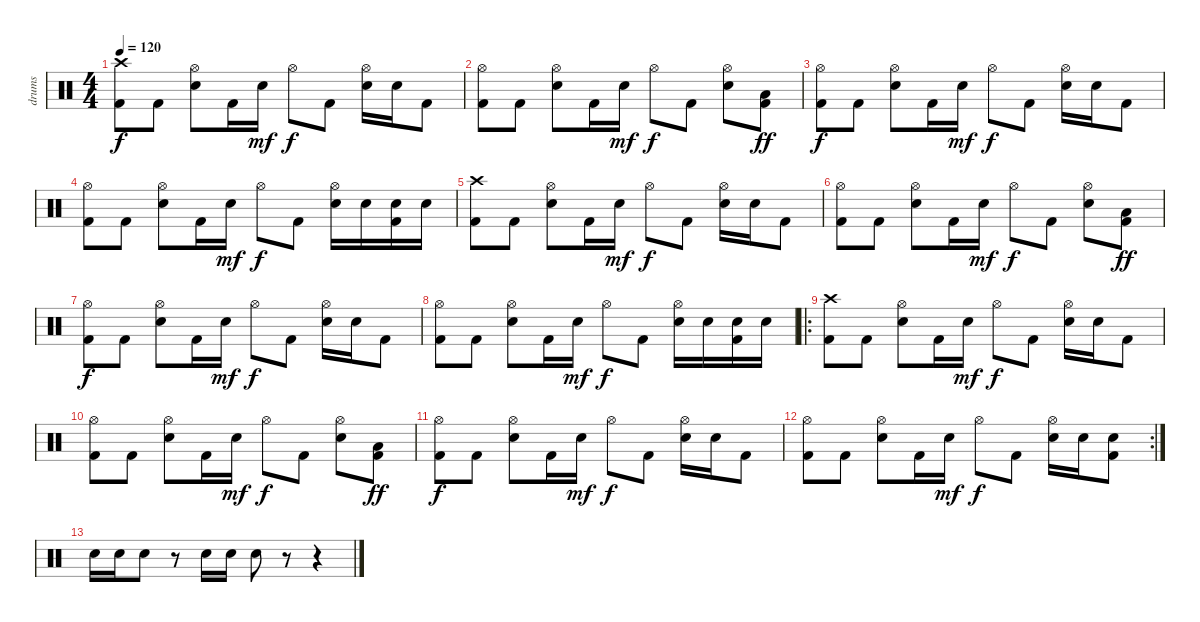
\track ("drums" "drums") {instrument percussion}
\staff {score}
\articulation defaults
\ts (4 4)
\tempo 120
\clef neutral
\ks c
("Crash high (hit)" "Kick (hit) 2").8{dy f} "Kick (hit) 2".8 ("Hi-Hat (open)" "Electric Snare (hit)").8 "Kick (hit) 2".16 "Electric Snare (hit)".16{dy mf} "Hi-Hat (open)".8{dy f} "Kick (hit) 2".8 ("Hi-Hat (open)" "Electric Snare (hit)").16 "Electric Snare (hit)".16 "Kick (hit) 2".8 |
("Hi-Hat (open)" "Kick (hit) 2").8 "Kick (hit) 2".8 ("Hi-Hat (open)" "Electric Snare (hit)").8 "Kick (hit) 2".16 "Electric Snare (hit)".16{dy mf} "Hi-Hat (open)".8{dy f} "Kick (hit) 2".8 ("Hi-Hat (open)" "Electric Snare (hit)").8 ("Low Floor Tom (hit)" "Kick (hit) 2").8{dy ff} |
("Hi-Hat (open)" "Kick (hit) 2").8{dy f} "Kick (hit) 2".8 ("Hi-Hat (open)" "Electric Snare (hit)").8 "Kick (hit) 2".16 "Electric Snare (hit)".16{dy mf} "Hi-Hat (open)".8{dy f} "Kick (hit) 2".8 ("Hi-Hat (open)" "Electric Snare (hit)").16 "Electric Snare (hit)".16 "Kick (hit) 2".8 |
("Hi-Hat (open)" "Kick (hit) 2").8 "Kick (hit) 2".8 ("Hi-Hat (open)" "Electric Snare (hit)").8 "Kick (hit) 2".16 "Electric Snare (hit)".16{dy mf} "Hi-Hat (open)".8{dy f} "Kick (hit) 2".8 ("Hi-Hat (open)" "Electric Snare (hit)").16 "Electric Snare (hit)".16 ("Electric Snare (hit)" "Kick (hit) 2").16 "Electric Snare (hit)".16 |
("Crash high (hit)" "Kick (hit) 2").8 "Kick (hit) 2".8 ("Hi-Hat (open)" "Electric Snare (hit)").8 "Kick (hit) 2".16 "Electric Snare (hit)".16{dy mf} "Hi-Hat (open)".8{dy f} "Kick (hit) 2".8 ("Hi-Hat (open)" "Electric Snare (hit)").16 "Electric Snare (hit)".16 "Kick (hit) 2".8 |
("Hi-Hat (open)" "Kick (hit) 2").8 "Kick (hit) 2".8 ("Hi-Hat (open)" "Electric Snare (hit)").8 "Kick (hit) 2".16 "Electric Snare (hit)".16{dy mf} "Hi-Hat (open)".8{dy f} "Kick (hit) 2".8 ("Hi-Hat (open)" "Electric Snare (hit)").8 ("Low Floor Tom (hit)" "Kick (hit) 2").8{dy ff} |
("Hi-Hat (open)" "Kick (hit) 2").8{dy f} "Kick (hit) 2".8 ("Hi-Hat (open)" "Electric Snare (hit)").8 "Kick (hit) 2".16 "Electric Snare (hit)".16{dy mf} "Hi-Hat (open)".8{dy f} "Kick (hit) 2".8 ("Hi-Hat (open)" "Electric Snare (hit)").16 "Electric Snare (hit)".16 "Kick (hit) 2".8 |
("Hi-Hat (open)" "Kick (hit) 2").8 "Kick (hit) 2".8 ("Hi-Hat (open)" "Electric Snare (hit)").8 "Kick (hit) 2".16 "Electric Snare (hit)".16{dy mf} "Hi-Hat (open)".8{dy f} "Kick (hit) 2".8 ("Hi-Hat (open)" "Electric Snare (hit)").16 "Electric Snare (hit)".16 ("Electric Snare (hit)" "Kick (hit) 2").16 "Electric Snare (hit)".16 |
\ro
("Crash high (hit)" "Kick (hit) 2").8 "Kick (hit) 2".8 ("Hi-Hat (open)" "Electric Snare (hit)").8 "Kick (hit) 2".16 "Electric Snare (hit)".16{dy mf} "Hi-Hat (open)".8{dy f} "Kick (hit) 2".8 ("Hi-Hat (open)" "Electric Snare (hit)").16 "Electric Snare (hit)".16 "Kick (hit) 2".8 |
("Hi-Hat (open)" "Kick (hit) 2").8 "Kick (hit) 2".8 ("Hi-Hat (open)" "Electric Snare (hit)").8 "Kick (hit) 2".16 "Electric Snare (hit)".16{dy mf} "Hi-Hat (open)".8{dy f} "Kick (hit) 2".8 ("Hi-Hat (open)" "Electric Snare (hit)").8 ("Low Floor Tom (hit)" "Kick (hit) 2").8{dy ff} |
("Hi-Hat (open)" "Kick (hit) 2").8{dy f} "Kick (hit) 2".8 ("Hi-Hat (open)" "Electric Snare (hit)").8 "Kick (hit) 2".16 "Electric Snare (hit)".16{dy mf} "Hi-Hat (open)".8{dy f} "Kick (hit) 2".8 ("Hi-Hat (open)" "Electric Snare (hit)").16 "Electric Snare (hit)".16 "Kick (hit) 2".8 |
\rc 2
("Hi-Hat (open)" "Kick (hit) 2").8 "Kick (hit) 2".8 ("Hi-Hat (open)" "Electric Snare (hit)").8 "Kick (hit) 2".16 "Electric Snare (hit)".16{dy mf} "Hi-Hat (open)".8{dy f} "Kick (hit) 2".8 ("Hi-Hat (open)" "Electric Snare (hit)").16 "Electric Snare (hit)".16 ("Electric Snare (hit)" "Kick (hit) 2").8 |
"Electric Snare (hit)".16 "Electric Snare (hit)".16 "Electric Snare (hit)".8 r.8 "Electric Snare (hit)".16 "Electric Snare (hit)".16 "Electric Snare (hit)".8 r.8 r.4
